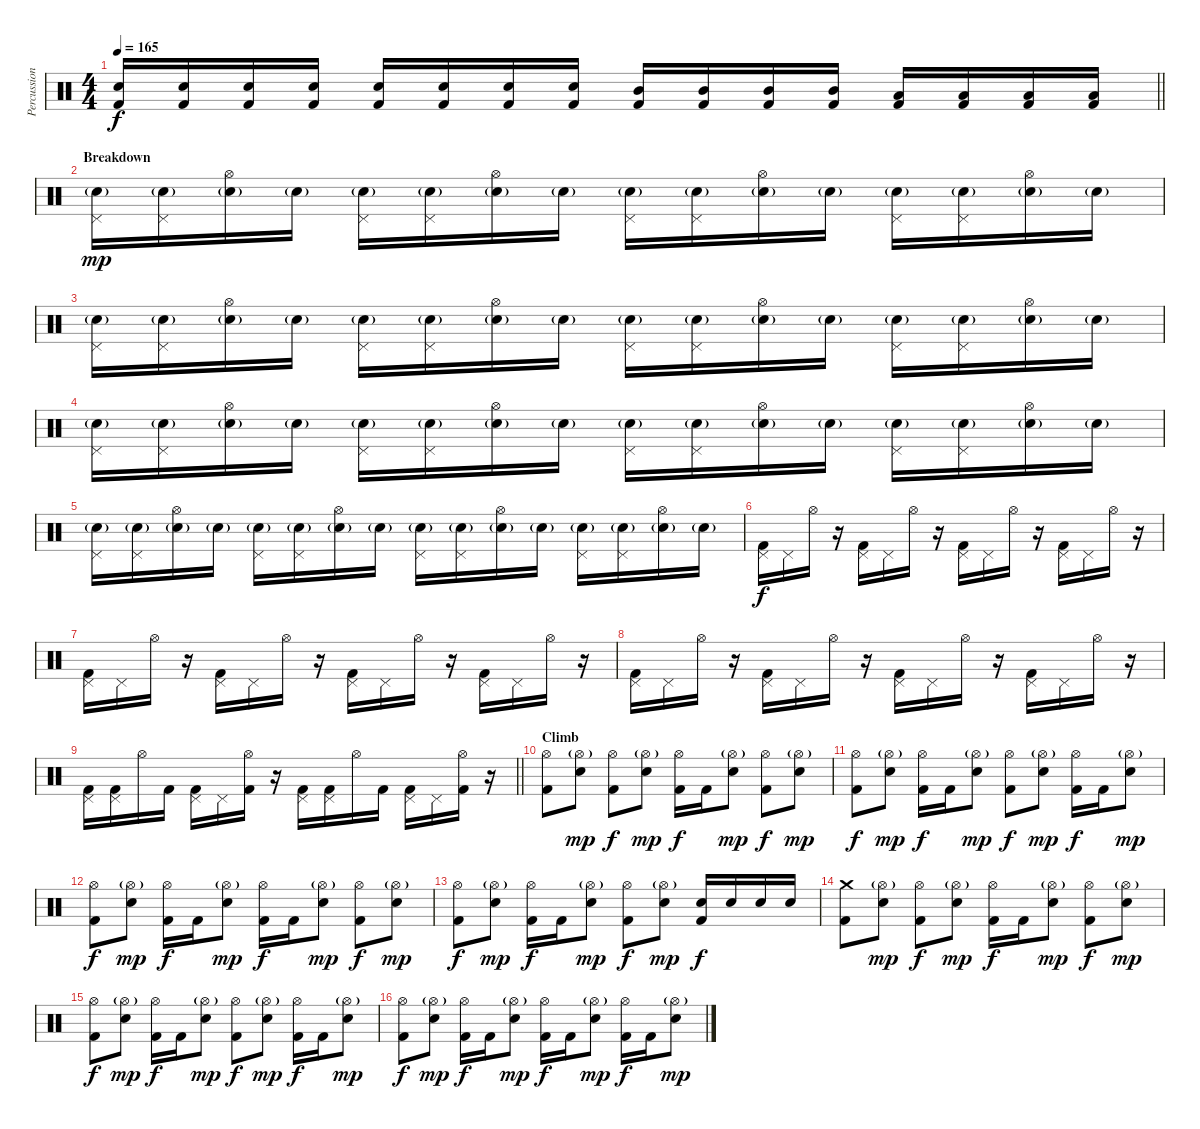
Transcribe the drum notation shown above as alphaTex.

\track ("Percussion" "Percussion") {instrument percussion}
\staff {score}
\articulation defaults
\ts (4 4)
\tempo 165
\clef neutral
\barLineRight lightlight
\ks c
("Snare (hit) 2" "Kick (hit) 2").16{dy f} ("Snare (hit) 2" "Kick (hit) 2").16 ("Snare (hit) 2" "Kick (hit) 2").16 ("Snare (hit) 2" "Kick (hit) 2").16 ("Snare (hit) 2" "Kick (hit) 2").16 ("Snare (hit) 2" "Kick (hit) 2").16 ("Snare (hit) 2" "Kick (hit) 2").16 ("Snare (hit) 2" "Kick (hit) 2").16 ("Mid Tom (hit)" "Kick (hit) 2").16 ("Mid Tom (hit)" "Kick (hit) 2").16 ("Mid Tom (hit)" "Kick (hit) 2").16 ("Mid Tom (hit)" "Kick (hit) 2").16 ("Low Tom (hit)" "Kick (hit) 2").16 ("Low Tom (hit)" "Kick (hit) 2").16 ("Low Tom (hit)" "Kick (hit) 2").16 ("Low Tom (hit)" "Kick (hit) 2").16 |
\section ("" "Breakdown")
("Pedal Hi-Hat (hit)" "Electric Snare (hit)"{g}).16{dy mp volume 0} ("Pedal Hi-Hat (hit)" "Electric Snare (hit)"{g}).16{volume 13} ("Hi-Hat (open)" "Electric Snare (hit)"{g}).16 "Electric Snare (hit)"{g}.16 ("Pedal Hi-Hat (hit)" "Electric Snare (hit)"{g}).16 ("Pedal Hi-Hat (hit)" "Electric Snare (hit)"{g}).16 ("Hi-Hat (open)" "Electric Snare (hit)"{g}).16 "Electric Snare (hit)"{g}.16 ("Pedal Hi-Hat (hit)" "Electric Snare (hit)"{g}).16 ("Pedal Hi-Hat (hit)" "Electric Snare (hit)"{g}).16 ("Hi-Hat (open)" "Electric Snare (hit)"{g}).16 "Electric Snare (hit)"{g}.16 ("Pedal Hi-Hat (hit)" "Electric Snare (hit)"{g}).16 ("Pedal Hi-Hat (hit)" "Electric Snare (hit)"{g}).16 ("Hi-Hat (open)" "Electric Snare (hit)"{g}).16 "Electric Snare (hit)"{g}.16 |
("Pedal Hi-Hat (hit)" "Electric Snare (hit)"{g}).16 ("Pedal Hi-Hat (hit)" "Electric Snare (hit)"{g}).16 ("Hi-Hat (open)" "Electric Snare (hit)"{g}).16 "Electric Snare (hit)"{g}.16 ("Pedal Hi-Hat (hit)" "Electric Snare (hit)"{g}).16 ("Pedal Hi-Hat (hit)" "Electric Snare (hit)"{g}).16 ("Hi-Hat (open)" "Electric Snare (hit)"{g}).16 "Electric Snare (hit)"{g}.16 ("Pedal Hi-Hat (hit)" "Electric Snare (hit)"{g}).16 ("Pedal Hi-Hat (hit)" "Electric Snare (hit)"{g}).16 ("Hi-Hat (open)" "Electric Snare (hit)"{g}).16 "Electric Snare (hit)"{g}.16 ("Pedal Hi-Hat (hit)" "Electric Snare (hit)"{g}).16 ("Pedal Hi-Hat (hit)" "Electric Snare (hit)"{g}).16 ("Hi-Hat (open)" "Electric Snare (hit)"{g}).16 "Electric Snare (hit)"{g}.16 |
("Pedal Hi-Hat (hit)" "Electric Snare (hit)"{g}).16 ("Pedal Hi-Hat (hit)" "Electric Snare (hit)"{g}).16 ("Hi-Hat (open)" "Electric Snare (hit)"{g}).16 "Electric Snare (hit)"{g}.16 ("Pedal Hi-Hat (hit)" "Electric Snare (hit)"{g}).16 ("Pedal Hi-Hat (hit)" "Electric Snare (hit)"{g}).16 ("Hi-Hat (open)" "Electric Snare (hit)"{g}).16 "Electric Snare (hit)"{g}.16 ("Pedal Hi-Hat (hit)" "Electric Snare (hit)"{g}).16 ("Pedal Hi-Hat (hit)" "Electric Snare (hit)"{g}).16 ("Hi-Hat (open)" "Electric Snare (hit)"{g}).16 "Electric Snare (hit)"{g}.16 ("Pedal Hi-Hat (hit)" "Electric Snare (hit)"{g}).16 ("Pedal Hi-Hat (hit)" "Electric Snare (hit)"{g}).16 ("Hi-Hat (open)" "Electric Snare (hit)"{g}).16 "Electric Snare (hit)"{g}.16 |
("Pedal Hi-Hat (hit)" "Electric Snare (hit)"{g}).16 ("Pedal Hi-Hat (hit)" "Electric Snare (hit)"{g}).16 ("Hi-Hat (open)" "Electric Snare (hit)"{g}).16 "Electric Snare (hit)"{g}.16 ("Pedal Hi-Hat (hit)" "Electric Snare (hit)"{g}).16 ("Pedal Hi-Hat (hit)" "Electric Snare (hit)"{g}).16 ("Hi-Hat (open)" "Electric Snare (hit)"{g}).16 "Electric Snare (hit)"{g}.16 ("Pedal Hi-Hat (hit)" "Electric Snare (hit)"{g}).16 ("Pedal Hi-Hat (hit)" "Electric Snare (hit)"{g}).16 ("Hi-Hat (open)" "Electric Snare (hit)"{g}).16 "Electric Snare (hit)"{g}.16 ("Pedal Hi-Hat (hit)" "Electric Snare (hit)"{g}).16 ("Pedal Hi-Hat (hit)" "Electric Snare (hit)"{g}).16 ("Hi-Hat (open)" "Electric Snare (hit)"{g}).16 "Electric Snare (hit)"{g}.16 |
("Pedal Hi-Hat (hit)" "Kick (hit) 2").16{dy f} "Pedal Hi-Hat (hit)".16 "Hi-Hat (open)".16 r.16 ("Pedal Hi-Hat (hit)" "Kick (hit) 2").16 "Pedal Hi-Hat (hit)".16 "Hi-Hat (open)".16 r.16 ("Pedal Hi-Hat (hit)" "Kick (hit) 2").16 "Pedal Hi-Hat (hit)".16 "Hi-Hat (open)".16 r.16 ("Pedal Hi-Hat (hit)" "Kick (hit) 2").16 "Pedal Hi-Hat (hit)".16 "Hi-Hat (open)".16 r.16 |
("Pedal Hi-Hat (hit)" "Kick (hit) 2").16 "Pedal Hi-Hat (hit)".16 "Hi-Hat (open)".16 r.16 ("Pedal Hi-Hat (hit)" "Kick (hit) 2").16 "Pedal Hi-Hat (hit)".16 "Hi-Hat (open)".16 r.16 ("Pedal Hi-Hat (hit)" "Kick (hit) 2").16 "Pedal Hi-Hat (hit)".16 "Hi-Hat (open)".16 r.16 ("Pedal Hi-Hat (hit)" "Kick (hit) 2").16 "Pedal Hi-Hat (hit)".16 "Hi-Hat (open)".16 r.16 |
("Pedal Hi-Hat (hit)" "Kick (hit) 2").16 "Pedal Hi-Hat (hit)".16 "Hi-Hat (open)".16 r.16 ("Pedal Hi-Hat (hit)" "Kick (hit) 2").16 "Pedal Hi-Hat (hit)".16 "Hi-Hat (open)".16 r.16 ("Pedal Hi-Hat (hit)" "Kick (hit) 2").16 "Pedal Hi-Hat (hit)".16 "Hi-Hat (open)".16 r.16 ("Pedal Hi-Hat (hit)" "Kick (hit) 2").16 "Pedal Hi-Hat (hit)".16 "Hi-Hat (open)".16 r.16 |
\barLineRight lightlight
("Pedal Hi-Hat (hit)" "Kick (hit) 2").16 ("Pedal Hi-Hat (hit)" "Kick (hit) 2").16 "Hi-Hat (open)".16 "Kick (hit) 2".16 ("Pedal Hi-Hat (hit)" "Kick (hit) 2").16 "Pedal Hi-Hat (hit)".16 ("Hi-Hat (open)" "Kick (hit) 2").16 r.16 ("Pedal Hi-Hat (hit)" "Kick (hit) 2").16 ("Pedal Hi-Hat (hit)" "Kick (hit) 2").16 "Hi-Hat (open)".16 "Kick (hit) 2".16 ("Pedal Hi-Hat (hit)" "Kick (hit) 2").16 "Pedal Hi-Hat (hit)".16 ("Hi-Hat (open)" "Kick (hit) 2").16 r.16 |
\section ("" "Climb")
("Hi-Hat (open)" "Kick (hit) 2").8 ("Hi-Hat (open)"{g} "Snare (hit) 2").8{dy mp} ("Hi-Hat (open)" "Kick (hit) 2").8{dy f} ("Hi-Hat (open)"{g} "Snare (hit) 2").8{dy mp} ("Hi-Hat (open)" "Kick (hit) 2").16{dy f} "Kick (hit) 2".16 ("Hi-Hat (open)"{g} "Snare (hit) 2").8{dy mp} ("Hi-Hat (open)" "Kick (hit) 2").8{dy f} ("Hi-Hat (open)"{g} "Snare (hit) 2").8{dy mp} |
("Hi-Hat (open)" "Kick (hit) 2").8{dy f} ("Hi-Hat (open)"{g} "Snare (hit) 2").8{dy mp} ("Hi-Hat (open)" "Kick (hit) 2").16{dy f} "Kick (hit) 2".16 ("Hi-Hat (open)"{g} "Snare (hit) 2").8{dy mp} ("Hi-Hat (open)" "Kick (hit) 2").8{dy f} ("Hi-Hat (open)"{g} "Snare (hit) 2").8{dy mp} ("Hi-Hat (open)" "Kick (hit) 2").16{dy f} "Kick (hit) 2".16 ("Hi-Hat (open)"{g} "Snare (hit) 2").8{dy mp} |
("Hi-Hat (open)" "Kick (hit) 2").8{dy f} ("Hi-Hat (open)"{g} "Snare (hit) 2").8{dy mp} ("Hi-Hat (open)" "Kick (hit) 2").16{dy f} "Kick (hit) 2".16 ("Hi-Hat (open)"{g} "Snare (hit) 2").8{dy mp} ("Hi-Hat (open)" "Kick (hit) 2").16{dy f} "Kick (hit) 2".16 ("Hi-Hat (open)"{g} "Snare (hit) 2").8{dy mp} ("Hi-Hat (open)" "Kick (hit) 2").8{dy f} ("Hi-Hat (open)"{g} "Snare (hit) 2").8{dy mp} |
("Hi-Hat (open)" "Kick (hit) 2").8{dy f} ("Hi-Hat (open)"{g} "Snare (hit) 2").8{dy mp} ("Hi-Hat (open)" "Kick (hit) 2").16{dy f} "Kick (hit) 2".16 ("Hi-Hat (open)"{g} "Snare (hit) 2").8{dy mp} ("Hi-Hat (open)" "Kick (hit) 2").8{dy f} ("Hi-Hat (open)"{g} "Snare (hit) 2").8{dy mp} ("Snare (hit) 2" "Kick (hit) 2").16{dy f} "Snare (hit) 2".16 "Snare (hit) 2".16 "Snare (hit) 2".16 |
("Crash medium (hit)" "Kick (hit) 2").8 ("Hi-Hat (open)"{g} "Snare (hit) 2").8{dy mp} ("Hi-Hat (open)" "Kick (hit) 2").8{dy f} ("Hi-Hat (open)"{g} "Snare (hit) 2").8{dy mp} ("Hi-Hat (open)" "Kick (hit) 2").16{dy f} "Kick (hit) 2".16 ("Hi-Hat (open)"{g} "Snare (hit) 2").8{dy mp} ("Hi-Hat (open)" "Kick (hit) 2").8{dy f} ("Hi-Hat (open)"{g} "Snare (hit) 2").8{dy mp} |
("Hi-Hat (open)" "Kick (hit) 2").8{dy f} ("Hi-Hat (open)"{g} "Snare (hit) 2").8{dy mp} ("Hi-Hat (open)" "Kick (hit) 2").16{dy f} "Kick (hit) 2".16 ("Hi-Hat (open)"{g} "Snare (hit) 2").8{dy mp} ("Hi-Hat (open)" "Kick (hit) 2").8{dy f} ("Hi-Hat (open)"{g} "Snare (hit) 2").8{dy mp} ("Hi-Hat (open)" "Kick (hit) 2").16{dy f} "Kick (hit) 2".16 ("Hi-Hat (open)"{g} "Snare (hit) 2").8{dy mp} |
("Hi-Hat (open)" "Kick (hit) 2").8{dy f} ("Hi-Hat (open)"{g} "Snare (hit) 2").8{dy mp} ("Hi-Hat (open)" "Kick (hit) 2").16{dy f} "Kick (hit) 2".16 ("Hi-Hat (open)"{g} "Snare (hit) 2").8{dy mp} ("Hi-Hat (open)" "Kick (hit) 2").16{dy f} "Kick (hit) 2".16 ("Hi-Hat (open)"{g} "Snare (hit) 2").8{dy mp} ("Hi-Hat (open)" "Kick (hit) 2").16{dy f} "Kick (hit) 2".16 ("Hi-Hat (open)"{g} "Snare (hit) 2").8{dy mp}
